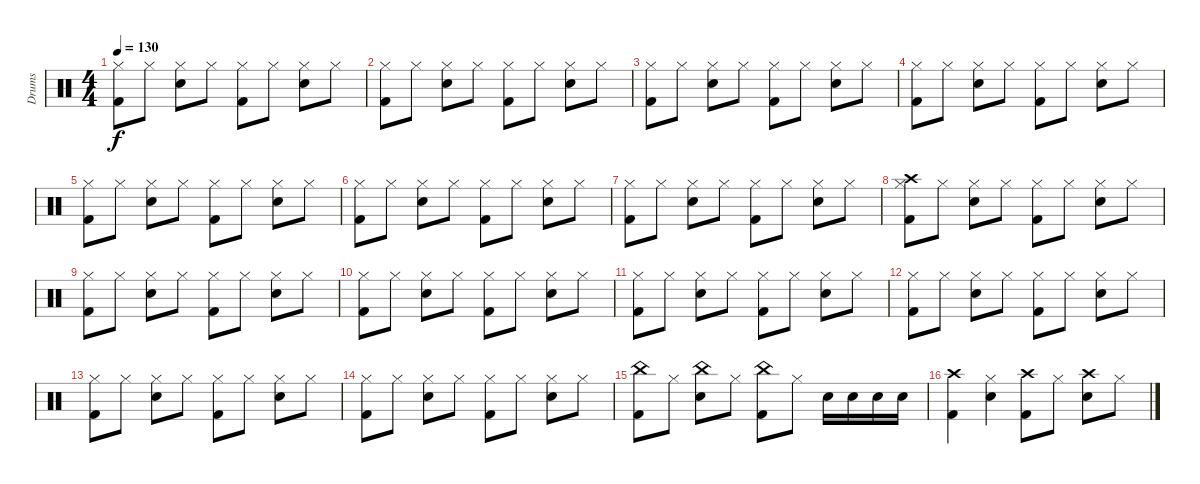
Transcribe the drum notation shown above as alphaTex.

\track ("Drums" "Drums") {instrument percussion}
\staff {score}
\articulation defaults
\ts (4 4)
\tempo 130
\clef neutral
\ks c
("Hi-Hat (closed)" "Kick (hit) 2").8{dy f} "Hi-Hat (closed)".8 ("Hi-Hat (closed)" "Electric Snare (hit)").8 "Hi-Hat (closed)".8 ("Hi-Hat (closed)" "Kick (hit) 2").8 "Hi-Hat (closed)".8 ("Hi-Hat (closed)" "Electric Snare (hit)").8 "Hi-Hat (closed)".8 |
("Hi-Hat (closed)" "Kick (hit) 2").8 "Hi-Hat (closed)".8 ("Hi-Hat (closed)" "Electric Snare (hit)").8 "Hi-Hat (closed)".8 ("Hi-Hat (closed)" "Kick (hit) 2").8 "Hi-Hat (closed)".8 ("Hi-Hat (closed)" "Electric Snare (hit)").8 "Hi-Hat (closed)".8 |
("Hi-Hat (closed)" "Kick (hit) 2").8 "Hi-Hat (closed)".8 ("Hi-Hat (closed)" "Electric Snare (hit)").8 "Hi-Hat (closed)".8 ("Hi-Hat (closed)" "Kick (hit) 2").8 "Hi-Hat (closed)".8 ("Hi-Hat (closed)" "Electric Snare (hit)").8 "Hi-Hat (closed)".8 |
("Hi-Hat (closed)" "Kick (hit) 2").8 "Hi-Hat (closed)".8 ("Hi-Hat (closed)" "Electric Snare (hit)").8 "Hi-Hat (closed)".8 ("Hi-Hat (closed)" "Kick (hit) 2").8 "Hi-Hat (closed)".8 ("Hi-Hat (closed)" "Electric Snare (hit)").8 "Hi-Hat (closed)".8 |
("Hi-Hat (closed)" "Kick (hit) 2").8 "Hi-Hat (closed)".8 ("Hi-Hat (closed)" "Electric Snare (hit)").8 "Hi-Hat (closed)".8 ("Hi-Hat (closed)" "Kick (hit) 2").8 "Hi-Hat (closed)".8 ("Hi-Hat (closed)" "Electric Snare (hit)").8 "Hi-Hat (closed)".8 |
("Hi-Hat (closed)" "Kick (hit) 2").8 "Hi-Hat (closed)".8 ("Hi-Hat (closed)" "Electric Snare (hit)").8 "Hi-Hat (closed)".8 ("Hi-Hat (closed)" "Kick (hit) 2").8 "Hi-Hat (closed)".8 ("Hi-Hat (closed)" "Electric Snare (hit)").8 "Hi-Hat (closed)".8 |
("Hi-Hat (closed)" "Kick (hit) 2").8 "Hi-Hat (closed)".8 ("Hi-Hat (closed)" "Electric Snare (hit)").8 "Hi-Hat (closed)".8 ("Hi-Hat (closed)" "Kick (hit) 2").8 "Hi-Hat (closed)".8 ("Hi-Hat (closed)" "Electric Snare (hit)").8 "Hi-Hat (closed)".8 |
("Hi-Hat (closed)" "Kick (hit) 2" "Crash high (hit)").8 "Hi-Hat (closed)".8 ("Hi-Hat (closed)" "Electric Snare (hit)").8 "Hi-Hat (closed)".8 ("Hi-Hat (closed)" "Kick (hit) 2").8 "Hi-Hat (closed)".8 ("Hi-Hat (closed)" "Electric Snare (hit)").8 "Hi-Hat (closed)".8 |
("Hi-Hat (closed)" "Kick (hit) 2").8 "Hi-Hat (closed)".8 ("Hi-Hat (closed)" "Electric Snare (hit)").8 "Hi-Hat (closed)".8 ("Hi-Hat (closed)" "Kick (hit) 2").8 "Hi-Hat (closed)".8 ("Hi-Hat (closed)" "Electric Snare (hit)").8 "Hi-Hat (closed)".8 |
("Hi-Hat (closed)" "Kick (hit) 2").8 "Hi-Hat (closed)".8 ("Hi-Hat (closed)" "Electric Snare (hit)").8 "Hi-Hat (closed)".8 ("Hi-Hat (closed)" "Kick (hit) 2").8 "Hi-Hat (closed)".8 ("Hi-Hat (closed)" "Electric Snare (hit)").8 "Hi-Hat (closed)".8 |
("Hi-Hat (closed)" "Kick (hit) 2").8 "Hi-Hat (closed)".8 ("Hi-Hat (closed)" "Electric Snare (hit)").8 "Hi-Hat (closed)".8 ("Hi-Hat (closed)" "Kick (hit) 2").8 "Hi-Hat (closed)".8 ("Hi-Hat (closed)" "Electric Snare (hit)").8 "Hi-Hat (closed)".8 |
("Hi-Hat (closed)" "Kick (hit) 2").8 "Hi-Hat (closed)".8 ("Hi-Hat (closed)" "Electric Snare (hit)").8 "Hi-Hat (closed)".8 ("Hi-Hat (closed)" "Kick (hit) 2").8 "Hi-Hat (closed)".8 ("Hi-Hat (closed)" "Electric Snare (hit)").8 "Hi-Hat (closed)".8 |
("Hi-Hat (closed)" "Kick (hit) 2").8 "Hi-Hat (closed)".8 ("Hi-Hat (closed)" "Electric Snare (hit)").8 "Hi-Hat (closed)".8 ("Hi-Hat (closed)" "Kick (hit) 2").8 "Hi-Hat (closed)".8 ("Hi-Hat (closed)" "Electric Snare (hit)").8 "Hi-Hat (closed)".8 |
("Hi-Hat (closed)" "Kick (hit) 2").8 "Hi-Hat (closed)".8 ("Hi-Hat (closed)" "Electric Snare (hit)").8 "Hi-Hat (closed)".8 ("Hi-Hat (closed)" "Kick (hit) 2").8 "Hi-Hat (closed)".8 ("Hi-Hat (closed)" "Electric Snare (hit)").8 "Hi-Hat (closed)".8 |
("China (hit)" "Kick (hit) 2").8 "Hi-Hat (closed)".8 ("China (hit)" "Electric Snare (hit)").8 "Hi-Hat (closed)".8 ("China (hit)" "Kick (hit) 2").8 "Hi-Hat (closed)".8 "Electric Snare (hit)".16 "Electric Snare (hit)".16 "Electric Snare (hit)".16 "Electric Snare (hit)".16 |
("Crash high (hit)" "Kick (hit) 2").4 ("Hi-Hat (closed)" "Electric Snare (hit)").4 ("Crash high (hit)" "Kick (hit) 2").8 "Hi-Hat (closed)".8 ("Crash high (hit)" "Electric Snare (hit)").8 "Hi-Hat (closed)".8
